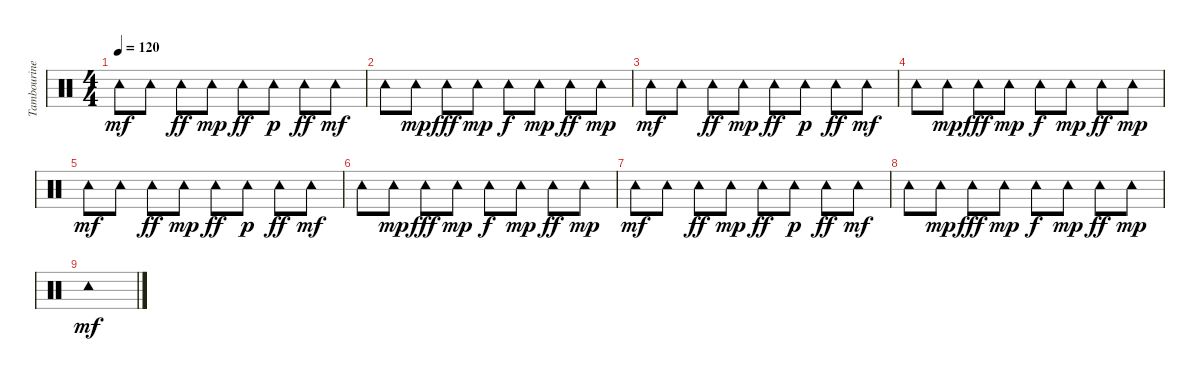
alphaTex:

\track ("Tambourine" "Tambourine") {instrument percussion}
\staff {score}
\articulation defaults
\ts (4 4)
\tempo 120
\clef neutral
\ks c "Tambourine (hit)".8{dy mf} "Tambourine (hit)".8 "Tambourine (hit)".8{dy ff} "Tambourine (hit)".8{dy mp} "Tambourine (hit)".8{dy ff} "Tambourine (hit)".8{dy p} "Tambourine (hit)".8{dy ff} "Tambourine (hit)".8{dy mf}
|
"Tambourine (hit)".8 "Tambourine (hit)".8{dy mp} "Tambourine (hit)".8{dy fff} "Tambourine (hit)".8{dy mp} "Tambourine (hit)".8{dy f} "Tambourine (hit)".8{dy mp} "Tambourine (hit)".8{dy ff} "Tambourine (hit)".8{dy mp} |
"Tambourine (hit)".8{dy mf} "Tambourine (hit)".8 "Tambourine (hit)".8{dy ff} "Tambourine (hit)".8{dy mp} "Tambourine (hit)".8{dy ff} "Tambourine (hit)".8{dy p} "Tambourine (hit)".8{dy ff} "Tambourine (hit)".8{dy mf} |
"Tambourine (hit)".8 "Tambourine (hit)".8{dy mp} "Tambourine (hit)".8{dy fff} "Tambourine (hit)".8{dy mp} "Tambourine (hit)".8{dy f} "Tambourine (hit)".8{dy mp} "Tambourine (hit)".8{dy ff} "Tambourine (hit)".8{dy mp} |
"Tambourine (hit)".8{dy mf} "Tambourine (hit)".8 "Tambourine (hit)".8{dy ff} "Tambourine (hit)".8{dy mp} "Tambourine (hit)".8{dy ff} "Tambourine (hit)".8{dy p} "Tambourine (hit)".8{dy ff} "Tambourine (hit)".8{dy mf} |
"Tambourine (hit)".8 "Tambourine (hit)".8{dy mp} "Tambourine (hit)".8{dy fff} "Tambourine (hit)".8{dy mp} "Tambourine (hit)".8{dy f} "Tambourine (hit)".8{dy mp} "Tambourine (hit)".8{dy ff} "Tambourine (hit)".8{dy mp} |
"Tambourine (hit)".8{dy mf} "Tambourine (hit)".8 "Tambourine (hit)".8{dy ff} "Tambourine (hit)".8{dy mp} "Tambourine (hit)".8{dy ff} "Tambourine (hit)".8{dy p} "Tambourine (hit)".8{dy ff} "Tambourine (hit)".8{dy mf} |
"Tambourine (hit)".8 "Tambourine (hit)".8{dy mp} "Tambourine (hit)".8{dy fff} "Tambourine (hit)".8{dy mp} "Tambourine (hit)".8{dy f} "Tambourine (hit)".8{dy mp} "Tambourine (hit)".8{dy ff} "Tambourine (hit)".8{dy mp} |
"Tambourine (hit)".1{dy mf}
